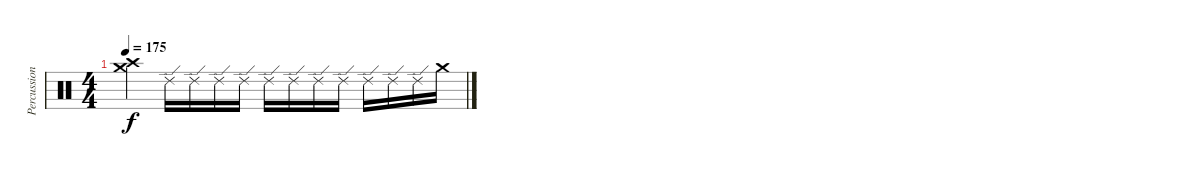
\track ("Percussion" "Percussion") {instrument percussion}
\staff {score}
\articulation defaults
\ts (4 4)
\tempo 175
\clef neutral
\ks c
("Crash high (hit)" "Crash medium (hit)").4{dy f} "Ride (edge) 2".16 "Ride (edge) 2".16 "Ride (edge) 2".16 "Ride (edge) 2".16 "Ride (edge) 2".16 "Ride (edge) 2".16 "Ride (edge) 2".16 "Ride (edge) 2".16 "Ride (edge) 2".16 "Ride (edge) 2".16 "Ride (edge) 2".16 "Crash medium (hit)".16
